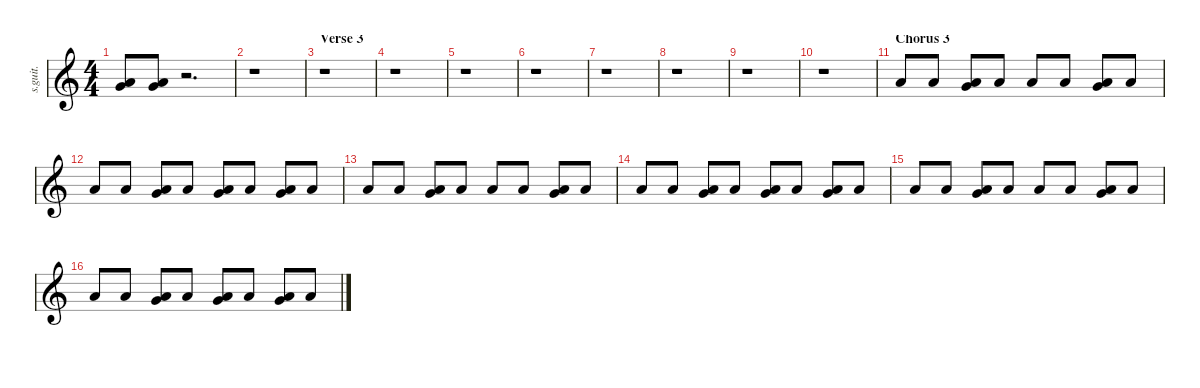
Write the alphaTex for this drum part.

\defaultSystemsLayout 4
\hideDynamics
\bracketExtendMode nobrackets
\track ("Clown" "s.guit.") {instrument percussion}
\staff {score}
\articulation defaults
\ts (4 4)
\tempo (205 hide)
\clef g2
\ks c
("Very Low Tom (hit)" "Low Floor Tom (hit)").8{lyrics (0 "") lyrics (1 "") lyrics (2 "") lyrics (3 "") lyrics (4 "") dy f} ("Very Low Tom (hit)" "Low Floor Tom (hit)").8{lyrics (0 "") lyrics (1 "") lyrics (2 "") lyrics (3 "") lyrics (4 "")} r.2{d} |
r.1 |
\section ("" "Verse 3")
\tempo (210 hide)
r.1 |
r.1 |
r.1 |
r.1 |
r.1 |
r.1 |
r.1 |
r.1 |
\section ("" "Chorus 3")
"Low Floor Tom (hit)".8{lyrics (0 "") lyrics (1 "") lyrics (2 "") lyrics (3 "") lyrics (4 "")} "Low Floor Tom (hit)".8{lyrics (0 "") lyrics (1 "") lyrics (2 "") lyrics (3 "") lyrics (4 "")} ("Very Low Tom (hit)" "Low Floor Tom (hit)").8{lyrics (0 "") lyrics (1 "") lyrics (2 "") lyrics (3 "") lyrics (4 "")} "Low Floor Tom (hit)".8{lyrics (0 "") lyrics (1 "") lyrics (2 "") lyrics (3 "") lyrics (4 "")} "Low Floor Tom (hit)".8{lyrics (0 "") lyrics (1 "") lyrics (2 "") lyrics (3 "") lyrics (4 "")} "Low Floor Tom (hit)".8{lyrics (0 "") lyrics (1 "") lyrics (2 "") lyrics (3 "") lyrics (4 "")} ("Very Low Tom (hit)" "Low Floor Tom (hit)").8{lyrics (0 "") lyrics (1 "") lyrics (2 "") lyrics (3 "") lyrics (4 "")} "Low Floor Tom (hit)".8{lyrics (0 "") lyrics (1 "") lyrics (2 "") lyrics (3 "") lyrics (4 "")} |
"Low Floor Tom (hit)".8{lyrics (0 "") lyrics (1 "") lyrics (2 "") lyrics (3 "") lyrics (4 "")} "Low Floor Tom (hit)".8{lyrics (0 "") lyrics (1 "") lyrics (2 "") lyrics (3 "") lyrics (4 "")} ("Very Low Tom (hit)" "Low Floor Tom (hit)").8{lyrics (0 "") lyrics (1 "") lyrics (2 "") lyrics (3 "") lyrics (4 "")} "Low Floor Tom (hit)".8{lyrics (0 "") lyrics (1 "") lyrics (2 "") lyrics (3 "") lyrics (4 "")} ("Very Low Tom (hit)" "Low Floor Tom (hit)").8{lyrics (0 "") lyrics (1 "") lyrics (2 "") lyrics (3 "") lyrics (4 "")} "Low Floor Tom (hit)".8{lyrics (0 "") lyrics (1 "") lyrics (2 "") lyrics (3 "") lyrics (4 "")} ("Very Low Tom (hit)" "Low Floor Tom (hit)").8{lyrics (0 "") lyrics (1 "") lyrics (2 "") lyrics (3 "") lyrics (4 "")} "Low Floor Tom (hit)".8{lyrics (0 "") lyrics (1 "") lyrics (2 "") lyrics (3 "") lyrics (4 "")} |
"Low Floor Tom (hit)".8{lyrics (0 "") lyrics (1 "") lyrics (2 "") lyrics (3 "") lyrics (4 "")} "Low Floor Tom (hit)".8{lyrics (0 "") lyrics (1 "") lyrics (2 "") lyrics (3 "") lyrics (4 "")} ("Very Low Tom (hit)" "Low Floor Tom (hit)").8{lyrics (0 "") lyrics (1 "") lyrics (2 "") lyrics (3 "") lyrics (4 "")} "Low Floor Tom (hit)".8{lyrics (0 "") lyrics (1 "") lyrics (2 "") lyrics (3 "") lyrics (4 "")} "Low Floor Tom (hit)".8{lyrics (0 "") lyrics (1 "") lyrics (2 "") lyrics (3 "") lyrics (4 "")} "Low Floor Tom (hit)".8{lyrics (0 "") lyrics (1 "") lyrics (2 "") lyrics (3 "") lyrics (4 "")} ("Very Low Tom (hit)" "Low Floor Tom (hit)").8{lyrics (0 "") lyrics (1 "") lyrics (2 "") lyrics (3 "") lyrics (4 "")} "Low Floor Tom (hit)".8{lyrics (0 "") lyrics (1 "") lyrics (2 "") lyrics (3 "") lyrics (4 "")} |
"Low Floor Tom (hit)".8{lyrics (0 "") lyrics (1 "") lyrics (2 "") lyrics (3 "") lyrics (4 "")} "Low Floor Tom (hit)".8{lyrics (0 "") lyrics (1 "") lyrics (2 "") lyrics (3 "") lyrics (4 "")} ("Very Low Tom (hit)" "Low Floor Tom (hit)").8{lyrics (0 "") lyrics (1 "") lyrics (2 "") lyrics (3 "") lyrics (4 "")} "Low Floor Tom (hit)".8{lyrics (0 "") lyrics (1 "") lyrics (2 "") lyrics (3 "") lyrics (4 "")} ("Very Low Tom (hit)" "Low Floor Tom (hit)").8{lyrics (0 "") lyrics (1 "") lyrics (2 "") lyrics (3 "") lyrics (4 "")} "Low Floor Tom (hit)".8{lyrics (0 "") lyrics (1 "") lyrics (2 "") lyrics (3 "") lyrics (4 "")} ("Very Low Tom (hit)" "Low Floor Tom (hit)").8{lyrics (0 "") lyrics (1 "") lyrics (2 "") lyrics (3 "") lyrics (4 "")} "Low Floor Tom (hit)".8{lyrics (0 "") lyrics (1 "") lyrics (2 "") lyrics (3 "") lyrics (4 "")} |
"Low Floor Tom (hit)".8{lyrics (0 "") lyrics (1 "") lyrics (2 "") lyrics (3 "") lyrics (4 "")} "Low Floor Tom (hit)".8{lyrics (0 "") lyrics (1 "") lyrics (2 "") lyrics (3 "") lyrics (4 "")} ("Very Low Tom (hit)" "Low Floor Tom (hit)").8{lyrics (0 "") lyrics (1 "") lyrics (2 "") lyrics (3 "") lyrics (4 "")} "Low Floor Tom (hit)".8{lyrics (0 "") lyrics (1 "") lyrics (2 "") lyrics (3 "") lyrics (4 "")} "Low Floor Tom (hit)".8{lyrics (0 "") lyrics (1 "") lyrics (2 "") lyrics (3 "") lyrics (4 "")} "Low Floor Tom (hit)".8{lyrics (0 "") lyrics (1 "") lyrics (2 "") lyrics (3 "") lyrics (4 "")} ("Very Low Tom (hit)" "Low Floor Tom (hit)").8{lyrics (0 "") lyrics (1 "") lyrics (2 "") lyrics (3 "") lyrics (4 "")} "Low Floor Tom (hit)".8{lyrics (0 "") lyrics (1 "") lyrics (2 "") lyrics (3 "") lyrics (4 "")} |
"Low Floor Tom (hit)".8{lyrics (0 "") lyrics (1 "") lyrics (2 "") lyrics (3 "") lyrics (4 "")} "Low Floor Tom (hit)".8{lyrics (0 "") lyrics (1 "") lyrics (2 "") lyrics (3 "") lyrics (4 "")} ("Very Low Tom (hit)" "Low Floor Tom (hit)").8{lyrics (0 "") lyrics (1 "") lyrics (2 "") lyrics (3 "") lyrics (4 "")} "Low Floor Tom (hit)".8{lyrics (0 "") lyrics (1 "") lyrics (2 "") lyrics (3 "") lyrics (4 "")} ("Very Low Tom (hit)" "Low Floor Tom (hit)").8{lyrics (0 "") lyrics (1 "") lyrics (2 "") lyrics (3 "") lyrics (4 "")} "Low Floor Tom (hit)".8{lyrics (0 "") lyrics (1 "") lyrics (2 "") lyrics (3 "") lyrics (4 "")} ("Very Low Tom (hit)" "Low Floor Tom (hit)").8{lyrics (0 "") lyrics (1 "") lyrics (2 "") lyrics (3 "") lyrics (4 "")} "Low Floor Tom (hit)".8{lyrics (0 "") lyrics (1 "") lyrics (2 "") lyrics (3 "") lyrics (4 "")}
